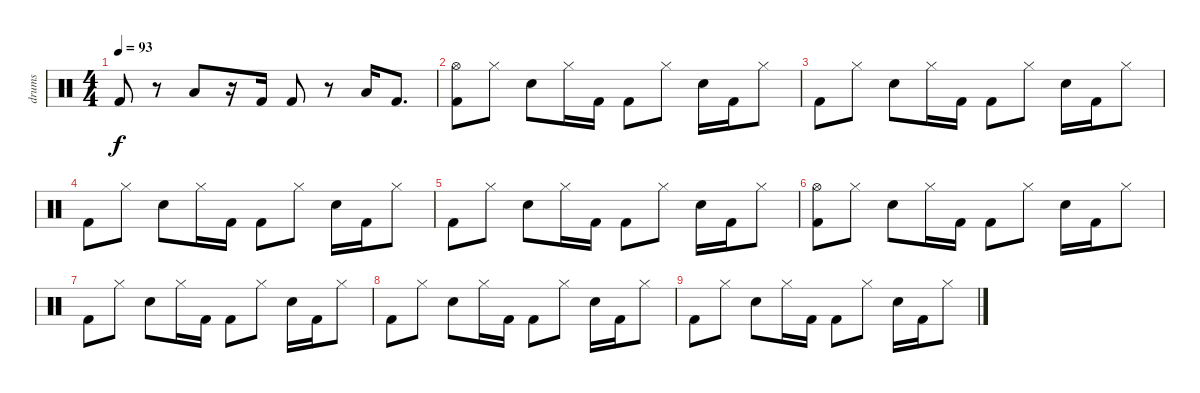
\track ("drums" "drums") {instrument percussion}
\staff {score}
\articulation defaults
\ts (4 4)
\tempo 93
\clef neutral
\ks c "Kick (hit) 2".8{dy f}
r.8 "Low Tom (hit)".8 r.16 "Kick (hit) 2".16 "Kick (hit) 2".8 r.8 "Low Tom (hit)".16 "Kick (hit) 2".8{d} |
("Hi-Hat (open)" "Kick (hit) 2").8 "Hi-Hat (closed)".8 "Snare (hit) 2".8 "Hi-Hat (closed)".16 "Kick (hit) 2".16 "Kick (hit) 2".8 "Hi-Hat (closed)".8 "Snare (hit) 2".16 "Kick (hit) 2".16 "Hi-Hat (closed)".8 |
"Kick (hit) 2".8 "Hi-Hat (closed)".8 "Snare (hit) 2".8 "Hi-Hat (closed)".16 "Kick (hit) 2".16 "Kick (hit) 2".8 "Hi-Hat (closed)".8 "Snare (hit) 2".16 "Kick (hit) 2".16 "Hi-Hat (closed)".8 |
"Kick (hit) 2".8 "Hi-Hat (closed)".8 "Snare (hit) 2".8 "Hi-Hat (closed)".16 "Kick (hit) 2".16 "Kick (hit) 2".8 "Hi-Hat (closed)".8 "Snare (hit) 2".16 "Kick (hit) 2".16 "Hi-Hat (closed)".8 |
"Kick (hit) 2".8 "Hi-Hat (closed)".8 "Snare (hit) 2".8 "Hi-Hat (closed)".16 "Kick (hit) 2".16 "Kick (hit) 2".8 "Hi-Hat (closed)".8 "Snare (hit) 2".16 "Kick (hit) 2".16 "Hi-Hat (closed)".8 |
("Hi-Hat (open)" "Kick (hit) 2").8 "Hi-Hat (closed)".8 "Snare (hit) 2".8 "Hi-Hat (closed)".16 "Kick (hit) 2".16 "Kick (hit) 2".8 "Hi-Hat (closed)".8 "Snare (hit) 2".16 "Kick (hit) 2".16 "Hi-Hat (closed)".8 |
"Kick (hit) 2".8 "Hi-Hat (closed)".8 "Snare (hit) 2".8 "Hi-Hat (closed)".16 "Kick (hit) 2".16 "Kick (hit) 2".8 "Hi-Hat (closed)".8 "Snare (hit) 2".16 "Kick (hit) 2".16 "Hi-Hat (closed)".8 |
"Kick (hit) 2".8 "Hi-Hat (closed)".8 "Snare (hit) 2".8 "Hi-Hat (closed)".16 "Kick (hit) 2".16 "Kick (hit) 2".8 "Hi-Hat (closed)".8 "Snare (hit) 2".16 "Kick (hit) 2".16 "Hi-Hat (closed)".8 |
"Kick (hit) 2".8 "Hi-Hat (closed)".8 "Snare (hit) 2".8 "Hi-Hat (closed)".16 "Kick (hit) 2".16 "Kick (hit) 2".8 "Hi-Hat (closed)".8 "Snare (hit) 2".16 "Kick (hit) 2".16 "Hi-Hat (closed)".8
